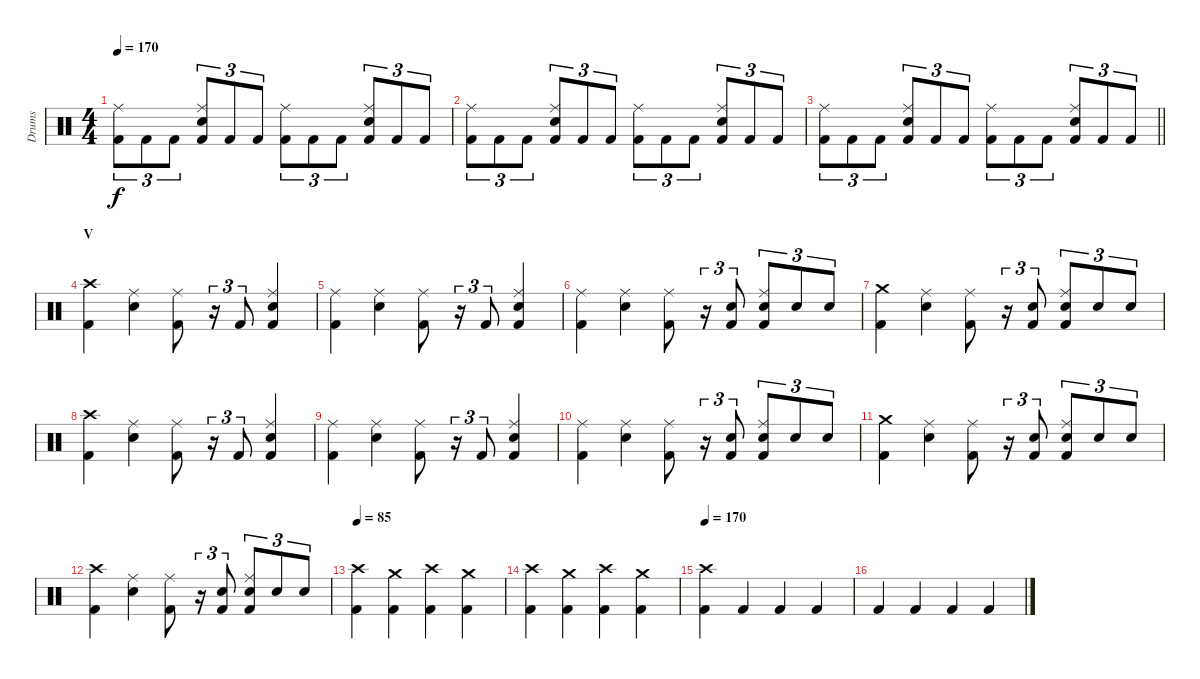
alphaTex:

\track ("Drums" "Drums") {instrument percussion}
\staff {score}
\articulation defaults
\ts (4 4)
\tempo 170
\clef neutral
\ks c
("Kick (hit) 2" "Ride (middle)").8{tu (3 2) dy f} "Kick (hit) 2".8{tu (3 2)} "Kick (hit) 2".8{tu (3 2)} ("Kick (hit) 2" "Snare (hit) 2" "Ride (middle)").8{tu (3 2)} "Kick (hit) 2".8{tu (3 2)} "Kick (hit) 2".8{tu (3 2)} ("Kick (hit) 2" "Ride (middle)").8{tu (3 2)} "Kick (hit) 2".8{tu (3 2)} "Kick (hit) 2".8{tu (3 2)} ("Kick (hit) 2" "Snare (hit) 2" "Ride (middle)").8{tu (3 2)} "Kick (hit) 2".8{tu (3 2)} "Kick (hit) 2".8{tu (3 2)} |
("Kick (hit) 2" "Ride (middle)").8{tu (3 2)} "Kick (hit) 2".8{tu (3 2)} "Kick (hit) 2".8{tu (3 2)} ("Kick (hit) 2" "Snare (hit) 2" "Ride (middle)").8{tu (3 2)} "Kick (hit) 2".8{tu (3 2)} "Kick (hit) 2".8{tu (3 2)} ("Kick (hit) 2" "Ride (middle)").8{tu (3 2)} "Kick (hit) 2".8{tu (3 2)} "Kick (hit) 2".8{tu (3 2)} ("Kick (hit) 2" "Snare (hit) 2" "Ride (middle)").8{tu (3 2)} "Kick (hit) 2".8{tu (3 2)} "Kick (hit) 2".8{tu (3 2)} |
\barLineRight lightlight
("Kick (hit) 2" "Ride (middle)").8{tu (3 2)} "Kick (hit) 2".8{tu (3 2)} "Kick (hit) 2".8{tu (3 2)} ("Kick (hit) 2" "Snare (hit) 2" "Ride (middle)").8{tu (3 2)} "Kick (hit) 2".8{tu (3 2)} "Kick (hit) 2".8{tu (3 2)} ("Kick (hit) 2" "Ride (middle)").8{tu (3 2)} "Kick (hit) 2".8{tu (3 2)} "Kick (hit) 2".8{tu (3 2)} ("Kick (hit) 2" "Snare (hit) 2" "Ride (middle)").8{tu (3 2)} "Kick (hit) 2".8{tu (3 2)} "Kick (hit) 2".8{tu (3 2)} |
\section ("" "V")
("Kick (hit) 2" "Crash high (hit)").4 ("Snare (hit) 2" "Ride (middle)").4 ("Kick (hit) 2" "Ride (middle)").8 r.16{tu (3 2)} "Kick (hit) 2".8{tu (3 2)} ("Kick (hit) 2" "Snare (hit) 2" "Ride (middle)").4 |
("Kick (hit) 2" "Ride (middle)").4 ("Snare (hit) 2" "Ride (middle)").4 ("Kick (hit) 2" "Ride (middle)").8 r.16{tu (3 2)} "Kick (hit) 2".8{tu (3 2)} ("Kick (hit) 2" "Snare (hit) 2" "Ride (middle)").4 |
("Kick (hit) 2" "Ride (middle)").4 ("Snare (hit) 2" "Ride (middle)").4 ("Kick (hit) 2" "Ride (middle)").8 r.16{tu (3 2)} ("Kick (hit) 2" "Snare (hit) 2").8{tu (3 2)} ("Kick (hit) 2" "Snare (hit) 2" "Ride (middle)").8{tu (3 2)} "Snare (hit) 2".8{tu (3 2)} "Snare (hit) 2".8{tu (3 2)} |
("Kick (hit) 2" "Crash medium (hit)").4 ("Snare (hit) 2" "Ride (middle)").4 ("Kick (hit) 2" "Ride (middle)").8 r.16{tu (3 2)} ("Kick (hit) 2" "Snare (hit) 2").8{tu (3 2)} ("Kick (hit) 2" "Snare (hit) 2" "Ride (middle)").8{tu (3 2)} "Snare (hit) 2".8{tu (3 2)} "Snare (hit) 2".8{tu (3 2)} |
("Kick (hit) 2" "Crash high (hit)").4 ("Snare (hit) 2" "Ride (middle)").4 ("Kick (hit) 2" "Ride (middle)").8 r.16{tu (3 2)} "Kick (hit) 2".8{tu (3 2)} ("Kick (hit) 2" "Snare (hit) 2" "Ride (middle)").4 |
("Kick (hit) 2" "Ride (middle)").4 ("Snare (hit) 2" "Ride (middle)").4 ("Kick (hit) 2" "Ride (middle)").8 r.16{tu (3 2)} "Kick (hit) 2".8{tu (3 2)} ("Kick (hit) 2" "Snare (hit) 2" "Ride (middle)").4 |
("Kick (hit) 2" "Ride (middle)").4 ("Snare (hit) 2" "Ride (middle)").4 ("Kick (hit) 2" "Ride (middle)").8 r.16{tu (3 2)} ("Kick (hit) 2" "Snare (hit) 2").8{tu (3 2)} ("Kick (hit) 2" "Snare (hit) 2" "Ride (middle)").8{tu (3 2)} "Snare (hit) 2".8{tu (3 2)} "Snare (hit) 2".8{tu (3 2)} |
("Kick (hit) 2" "Crash medium (hit)").4 ("Snare (hit) 2" "Ride (middle)").4 ("Kick (hit) 2" "Ride (middle)").8 r.16{tu (3 2)} ("Kick (hit) 2" "Snare (hit) 2").8{tu (3 2)} ("Kick (hit) 2" "Snare (hit) 2" "Ride (middle)").8{tu (3 2)} "Snare (hit) 2".8{tu (3 2)} "Snare (hit) 2".8{tu (3 2)} |
("Kick (hit) 2" "Crash high (hit)").4 ("Snare (hit) 2" "Ride (middle)").4 ("Kick (hit) 2" "Ride (middle)").8 r.16{tu (3 2)} ("Kick (hit) 2" "Snare (hit) 2").8{tu (3 2)} ("Kick (hit) 2" "Snare (hit) 2" "Ride (middle)").8{tu (3 2)} "Snare (hit) 2".8{tu (3 2)} "Snare (hit) 2".8{tu (3 2)} |
\tempo 85
("Kick (hit) 2" "Crash high (hit)").4 ("Kick (hit) 2" "Crash medium (hit)").4 ("Kick (hit) 2" "Crash high (hit)").4 ("Kick (hit) 2" "Crash medium (hit)").4 |
("Kick (hit) 2" "Crash high (hit)").4 ("Kick (hit) 2" "Crash medium (hit)").4 ("Kick (hit) 2" "Crash high (hit)").4 ("Kick (hit) 2" "Crash medium (hit)").4 |
\tempo 170
("Kick (hit) 2" "Crash high (hit)").4 "Kick (hit) 2".4 "Kick (hit) 2".4 "Kick (hit) 2".4 |
"Kick (hit) 2".4 "Kick (hit) 2".4 "Kick (hit) 2".4 "Kick (hit) 2".4
